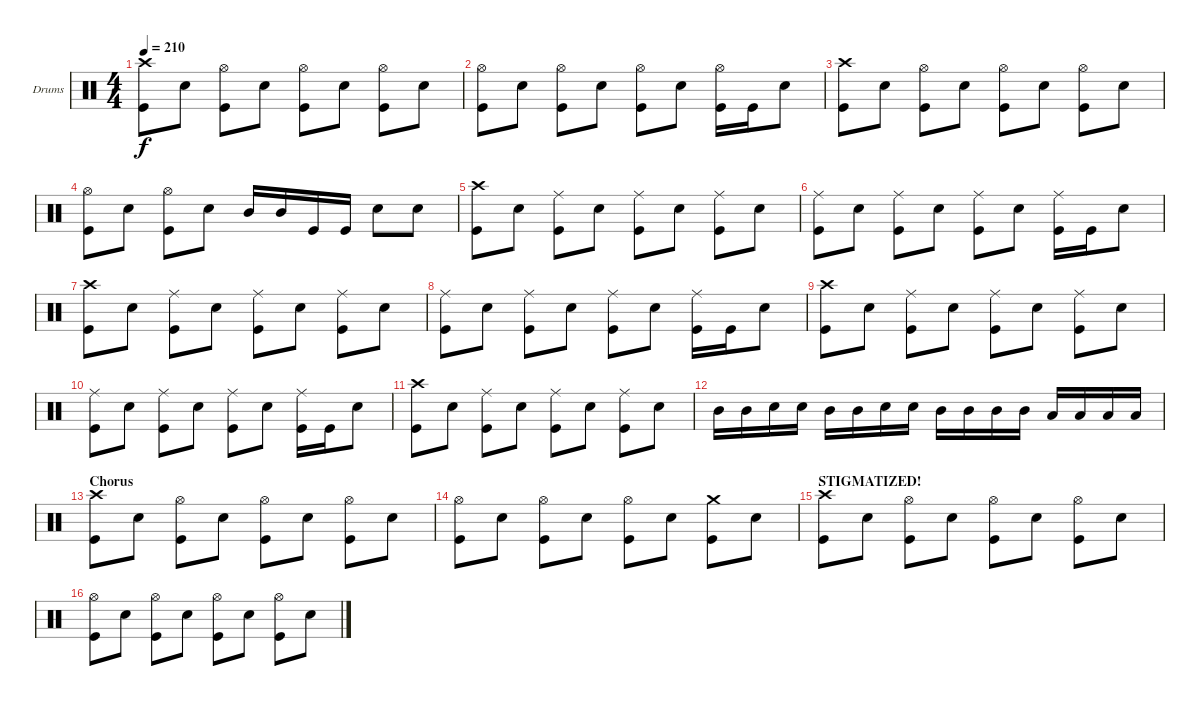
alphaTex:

\defaultSystemsLayout 4
\bracketExtendMode groupsimilarinstruments
\firstSystemTrackNameOrientation horizontal
\otherSystemsTrackNameOrientation horizontal
\track ("Markus Freiwald" "Drums") {instrument percussion}
\staff {score}
\articulation defaults
\ts (4 4)
\tempo 210
\clef neutral
\scale
0.5
\ks c
("Crash high (hit)" "Kick (hit)").8{dy f} "Snare (hit) 2".8 ("Hi-Hat (open)" "Kick (hit)").8 "Snare (hit) 2".8 ("Hi-Hat (open)" "Kick (hit)").8 "Snare (hit) 2".8 ("Hi-Hat (open)" "Kick (hit)").8 "Snare (hit) 2".8 |
\scale
0.5 ("Hi-Hat (open)" "Kick (hit)").8 "Snare (hit) 2".8 ("Hi-Hat (open)" "Kick (hit)").8 "Snare (hit) 2".8 ("Hi-Hat (open)" "Kick (hit)").8 "Snare (hit) 2".8 ("Hi-Hat (open)" "Kick (hit)").16 "Kick (hit)".16 "Snare (hit) 2".8 |
\scale
0.5 ("Crash high (hit)" "Kick (hit)").8 "Snare (hit) 2".8 ("Hi-Hat (open)" "Kick (hit)").8 "Snare (hit) 2".8 ("Hi-Hat (open)" "Kick (hit)").8 "Snare (hit) 2".8 ("Hi-Hat (open)" "Kick (hit)").8 "Snare (hit) 2".8 |
\scale
0.5 ("Hi-Hat (open)" "Kick (hit)").8 "Snare (hit) 2".8 ("Hi-Hat (open)" "Kick (hit)").8 "Snare (hit) 2".8 "Mid Tom (hit)".16 "Mid Tom (hit)".16 "Kick (hit)".16 "Kick (hit)".16 "Snare (hit) 2".8 "Snare (hit) 2".8 |
\scale
0.5 ("Crash high (hit)" "Kick (hit)").8 "Snare (hit) 2".8 ("Ride (middle)" "Kick (hit)").8 "Snare (hit) 2".8 ("Ride (middle)" "Kick (hit)").8 "Snare (hit) 2".8 ("Ride (middle)" "Kick (hit)").8 "Snare (hit) 2".8 |
\scale
0.5 ("Ride (middle)" "Kick (hit)").8 "Snare (hit) 2".8 ("Ride (middle)" "Kick (hit)").8 "Snare (hit) 2".8 ("Ride (middle)" "Kick (hit)").8 "Snare (hit) 2".8 ("Ride (middle)" "Kick (hit)").16 "Kick (hit)".16 "Snare (hit) 2".8 |
\scale
0.5 ("Crash high (hit)" "Kick (hit)").8 "Snare (hit) 2".8 ("Ride (middle)" "Kick (hit)").8 "Snare (hit) 2".8 ("Ride (middle)" "Kick (hit)").8 "Snare (hit) 2".8 ("Ride (middle)" "Kick (hit)").8 "Snare (hit) 2".8 |
\scale
0.5 ("Ride (middle)" "Kick (hit)").8 "Snare (hit) 2".8 ("Ride (middle)" "Kick (hit)").8 "Snare (hit) 2".8 ("Ride (middle)" "Kick (hit)").8 "Snare (hit) 2".8 ("Ride (middle)" "Kick (hit)").16 "Kick (hit)".16 "Snare (hit) 2".8 |
\scale
0.5 ("Crash high (hit)" "Kick (hit)").8 "Snare (hit) 2".8 ("Ride (middle)" "Kick (hit)").8 "Snare (hit) 2".8 ("Ride (middle)" "Kick (hit)").8 "Snare (hit) 2".8 ("Ride (middle)" "Kick (hit)").8 "Snare (hit) 2".8 |
\scale
0.5 ("Ride (middle)" "Kick (hit)").8 "Snare (hit) 2".8 ("Ride (middle)" "Kick (hit)").8 "Snare (hit) 2".8 ("Ride (middle)" "Kick (hit)").8 "Snare (hit) 2".8 ("Ride (middle)" "Kick (hit)").16 "Kick (hit)".16 "Snare (hit) 2".8 |
\scale
0.5 ("Crash high (hit)" "Kick (hit)").8 "Snare (hit) 2".8 ("Ride (middle)" "Kick (hit)").8 "Snare (hit) 2".8 ("Ride (middle)" "Kick (hit)").8 "Snare (hit) 2".8 ("Ride (middle)" "Kick (hit)").8 "Snare (hit) 2".8 |
\scale
0.5 "Mid Tom (hit)".16 "Mid Tom (hit)".16 "Snare (hit) 2".16 "Snare (hit) 2".16 "Mid Tom (hit)".16 "Mid Tom (hit)".16 "Snare (hit) 2".16 "Snare (hit) 2".16 "Mid Tom (hit)".16 "Mid Tom (hit)".16 "Mid Tom (hit)".16 "Mid Tom (hit)".16 "Low Tom (hit)".16 "Low Tom (hit)".16 "Low Tom (hit)".16 "Low Tom (hit)".16 |
\section ("" "Chorus")
\scale
0.5 ("Crash high (hit)" "Kick (hit)").8 "Snare (hit) 2".8 ("Hi-Hat (open)" "Kick (hit)").8 "Snare (hit) 2".8 ("Hi-Hat (open)" "Kick (hit)").8 "Snare (hit) 2".8 ("Hi-Hat (open)" "Kick (hit)").8 "Snare (hit) 2".8 |
\scale
0.5 ("Hi-Hat (open)" "Kick (hit)").8 "Snare (hit) 2".8 ("Hi-Hat (open)" "Kick (hit)").8 "Snare (hit) 2".8 ("Hi-Hat (open)" "Kick (hit)").8 "Snare (hit) 2".8 ("Crash medium (hit)" "Kick (hit)").8 "Snare (hit) 2".8 |
\section ("" "STIGMATIZED!")
\scale
0.5 ("Crash high (hit)" "Kick (hit)").8 "Snare (hit) 2".8 ("Hi-Hat (open)" "Kick (hit)").8 "Snare (hit) 2".8 ("Hi-Hat (open)" "Kick (hit)").8 "Snare (hit) 2".8 ("Hi-Hat (open)" "Kick (hit)").8 "Snare (hit) 2".8 |
\scale
0.5 ("Hi-Hat (open)" "Kick (hit)").8 "Snare (hit) 2".8 ("Hi-Hat (open)" "Kick (hit)").8 "Snare (hit) 2".8 ("Hi-Hat (open)" "Kick (hit)").8 "Snare (hit) 2".8 ("Kick (hit)" "Hi-Hat (open)").8 "Snare (hit) 2".8
